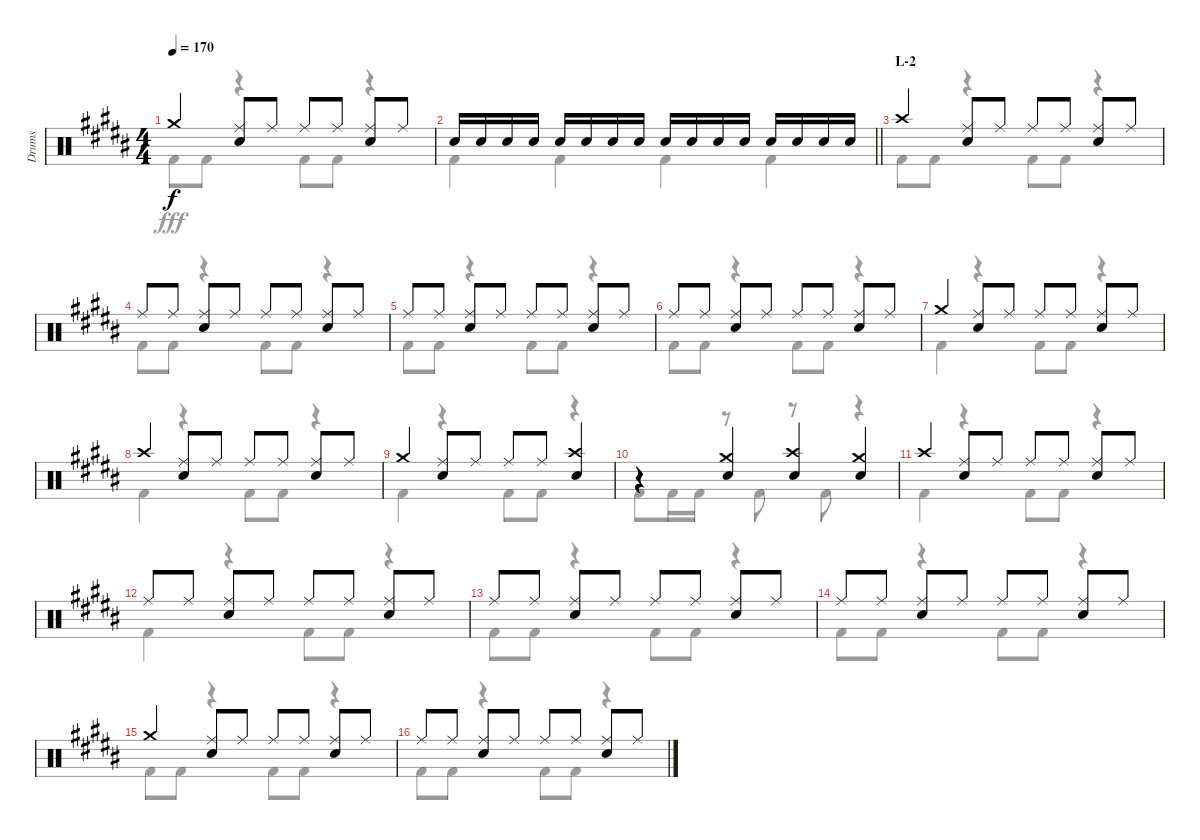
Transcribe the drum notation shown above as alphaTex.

\track ("Drums" "Drums") {instrument percussion}
\staff {score}
\articulation defaults
\voice
\ts (4 4)
\tempo 170
\clef neutral
\ks b "Crash medium (hit)".4{dy f}
("Ride (middle)" "Snare (hit) 2").8 "Ride (middle)".8 "Ride (middle)".8 "Ride (middle)".8 ("Ride (middle)" "Snare (hit) 2").8 "Ride (middle)".8 |
\barLineRight lightlight "Snare (hit) 2".16 "Snare (hit) 2".16 "Snare (hit) 2".16 "Snare (hit) 2".16 "Snare (hit) 2".16 "Snare (hit) 2".16 "Snare (hit) 2".16 "Snare (hit) 2".16 "Snare (hit) 2".16 "Snare (hit) 2".16 "Snare (hit) 2".16 "Snare (hit) 2".16 "Snare (hit) 2".16 "Snare (hit) 2".16 "Snare (hit) 2".16 "Snare (hit) 2".16
|
\section ("" "L-2")
"Crash high (hit)".4 ("Ride (middle)" "Snare (hit) 2").8 "Ride (middle)".8 "Ride (middle)".8 "Ride (middle)".8 ("Ride (middle)" "Snare (hit) 2").8 "Ride (middle)".8 |
"Ride (middle)".8 "Ride (middle)".8 ("Ride (middle)" "Snare (hit) 2").8 "Ride (middle)".8 "Ride (middle)".8 "Ride (middle)".8 ("Ride (middle)" "Snare (hit) 2").8 "Ride (middle)".8 |
"Ride (middle)".8 "Ride (middle)".8 ("Ride (middle)" "Snare (hit) 2").8 "Ride (middle)".8 "Ride (middle)".8 "Ride (middle)".8 ("Ride (middle)" "Snare (hit) 2").8 "Ride (middle)".8 |
"Ride (middle)".8 "Ride (middle)".8 ("Ride (middle)" "Snare (hit) 2").8 "Ride (middle)".8 "Ride (middle)".8 "Ride (middle)".8 ("Ride (middle)" "Snare (hit) 2").8 "Ride (middle)".8 |
"Crash medium (hit)".4 ("Ride (middle)" "Snare (hit) 2").8 "Ride (middle)".8 "Ride (middle)".8 "Ride (middle)".8 ("Ride (middle)" "Snare (hit) 2").8 "Ride (middle)".8 |
"Crash high (hit)".4 ("Ride (middle)" "Snare (hit) 2").8 "Ride (middle)".8 "Ride (middle)".8 "Ride (middle)".8 ("Ride (middle)" "Snare (hit) 2").8 "Ride (middle)".8 |
"Crash medium (hit)".4 ("Ride (middle)" "Snare (hit) 2").8 "Ride (middle)".8 "Ride (middle)".8 "Ride (middle)".8 ("Crash high (hit)" "Snare (hit) 2").4 |
r.4 ("Crash medium (hit)" "Snare (hit) 2").4 ("Crash high (hit)" "Snare (hit) 2").4 ("Crash medium (hit)" "Snare (hit) 2").4 |
"Crash high (hit)".4 ("Ride (middle)" "Snare (hit) 2").8 "Ride (middle)".8 "Ride (middle)".8 "Ride (middle)".8 ("Ride (middle)" "Snare (hit) 2").8 "Ride (middle)".8 |
"Ride (middle)".8 "Ride (middle)".8 ("Ride (middle)" "Snare (hit) 2").8 "Ride (middle)".8 "Ride (middle)".8 "Ride (middle)".8 ("Ride (middle)" "Snare (hit) 2").8 "Ride (middle)".8 |
"Ride (middle)".8 "Ride (middle)".8 ("Ride (middle)" "Snare (hit) 2").8 "Ride (middle)".8 "Ride (middle)".8 "Ride (middle)".8 ("Ride (middle)" "Snare (hit) 2").8 "Ride (middle)".8 |
"Ride (middle)".8 "Ride (middle)".8 ("Ride (middle)" "Snare (hit) 2").8 "Ride (middle)".8 "Ride (middle)".8 "Ride (middle)".8 ("Ride (middle)" "Snare (hit) 2").8 "Ride (middle)".8 |
"Crash medium (hit)".4 ("Ride (middle)" "Snare (hit) 2").8 "Ride (middle)".8 "Ride (middle)".8 "Ride (middle)".8 ("Ride (middle)" "Snare (hit) 2").8 "Ride (middle)".8 |
"Ride (middle)".8 "Ride (middle)".8 ("Ride (middle)" "Snare (hit) 2").8 "Ride (middle)".8 "Ride (middle)".8 "Ride (middle)".8 ("Ride (middle)" "Snare (hit) 2").8 "Ride (middle)".8
\voice
\clef neutral
\ottava regular
\simile none
\ks b "Kick (hit) 2".8{dy fff} "Kick (hit) 2".8
r.4 "Kick (hit) 2".8 "Kick (hit) 2".8 r.4 |
\barLineRight lightlight "Kick (hit) 2".4 "Kick (hit) 2".4 "Kick (hit) 2".4 "Kick (hit) 2".4
|
"Kick (hit) 2".8 "Kick (hit) 2".8 r.4 "Kick (hit) 2".8 "Kick (hit) 2".8 r.4 |
"Kick (hit) 2".8 "Kick (hit) 2".8 r.4 "Kick (hit) 2".8 "Kick (hit) 2".8 r.4 |
"Kick (hit) 2".8 "Kick (hit) 2".8 r.4 "Kick (hit) 2".8 "Kick (hit) 2".8 r.4 |
"Kick (hit) 2".8 "Kick (hit) 2".8 r.4 "Kick (hit) 2".8 "Kick (hit) 2".8 r.4 |
"Kick (hit) 2".4 r.4 "Kick (hit) 2".8 "Kick (hit) 2".8 r.4 |
"Kick (hit) 2".4 r.4 "Kick (hit) 2".8 "Kick (hit) 2".8 r.4 |
"Kick (hit) 2".4 r.4 "Kick (hit) 2".8 "Kick (hit) 2".8 r.4 |
"Kick (hit) 2".8 "Kick (hit) 2".16 "Kick (hit) 2".16 r.8 "Kick (hit) 2".8 r.8 "Kick (hit) 2".8 r.4 |
"Kick (hit) 2".4 r.4 "Kick (hit) 2".8 "Kick (hit) 2".8 r.4 |
"Kick (hit) 2".4 r.4 "Kick (hit) 2".8 "Kick (hit) 2".8 r.4 |
"Kick (hit) 2".8 "Kick (hit) 2".8 r.4 "Kick (hit) 2".8 "Kick (hit) 2".8 r.4 |
"Kick (hit) 2".8 "Kick (hit) 2".8 r.4 "Kick (hit) 2".8 "Kick (hit) 2".8 r.4 |
"Kick (hit) 2".8 "Kick (hit) 2".8 r.4 "Kick (hit) 2".8 "Kick (hit) 2".8 r.4 |
"Kick (hit) 2".8 "Kick (hit) 2".8 r.4 "Kick (hit) 2".8 "Kick (hit) 2".8 r.4
